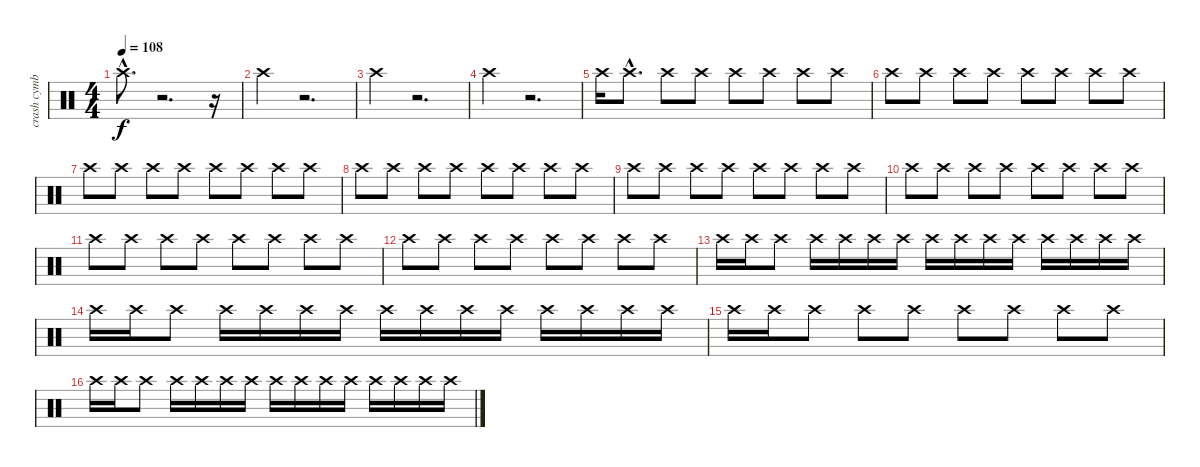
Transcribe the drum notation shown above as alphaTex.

\track ("crash cymbal        " "crash cymb") {instrument percussion}
\staff {score}
\articulation defaults
\ts (4 4)
\tempo 108
\clef neutral
\ks c "Crash high (hit)"{hac}.8{d dy f}
r.2{d} r.16 |
"Crash high (hit)".4 r.2{d} |
"Crash high (hit)".4 r.2{d} |
"Crash high (hit)".4 r.2{d} |
"Crash high (hit)".16 "Crash high (hit)"{hac}.8{d} "Crash high (hit)".8 "Crash high (hit)".8 "Crash high (hit)".8 "Crash high (hit)".8 "Crash high (hit)".8 "Crash high (hit)".8 |
"Crash high (hit)".8 "Crash high (hit)".8 "Crash high (hit)".8 "Crash high (hit)".8 "Crash high (hit)".8 "Crash high (hit)".8 "Crash high (hit)".8 "Crash high (hit)".8 |
"Crash high (hit)".8 "Crash high (hit)".8 "Crash high (hit)".8 "Crash high (hit)".8 "Crash high (hit)".8 "Crash high (hit)".8 "Crash high (hit)".8 "Crash high (hit)".8 |
"Crash high (hit)".8 "Crash high (hit)".8 "Crash high (hit)".8 "Crash high (hit)".8 "Crash high (hit)".8 "Crash high (hit)".8 "Crash high (hit)".8 "Crash high (hit)".8 |
"Crash high (hit)".8 "Crash high (hit)".8 "Crash high (hit)".8 "Crash high (hit)".8 "Crash high (hit)".8 "Crash high (hit)".8 "Crash high (hit)".8 "Crash high (hit)".8 |
"Crash high (hit)".8 "Crash high (hit)".8 "Crash high (hit)".8 "Crash high (hit)".8 "Crash high (hit)".8 "Crash high (hit)".8 "Crash high (hit)".8 "Crash high (hit)".8 |
"Crash high (hit)".8 "Crash high (hit)".8 "Crash high (hit)".8 "Crash high (hit)".8 "Crash high (hit)".8 "Crash high (hit)".8 "Crash high (hit)".8 "Crash high (hit)".8 |
"Crash high (hit)".8 "Crash high (hit)".8 "Crash high (hit)".8 "Crash high (hit)".8 "Crash high (hit)".8 "Crash high (hit)".8 "Crash high (hit)".8 "Crash high (hit)".8 |
"Crash high (hit)".16 "Crash high (hit)".16 "Crash high (hit)".8 "Crash high (hit)".16 "Crash high (hit)".16 "Crash high (hit)".16 "Crash high (hit)".16 "Crash high (hit)".16 "Crash high (hit)".16 "Crash high (hit)".16 "Crash high (hit)".16 "Crash high (hit)".16 "Crash high (hit)".16 "Crash high (hit)".16 "Crash high (hit)".16 |
"Crash high (hit)".16 "Crash high (hit)".16 "Crash high (hit)".8 "Crash high (hit)".16 "Crash high (hit)".16 "Crash high (hit)".16 "Crash high (hit)".16 "Crash high (hit)".16 "Crash high (hit)".16 "Crash high (hit)".16 "Crash high (hit)".16 "Crash high (hit)".16 "Crash high (hit)".16 "Crash high (hit)".16 "Crash high (hit)".16 |
"Crash high (hit)".16 "Crash high (hit)".16 "Crash high (hit)".8 "Crash high (hit)".8 "Crash high (hit)".8 "Crash high (hit)".8 "Crash high (hit)".8 "Crash high (hit)".8 "Crash high (hit)".8 |
"Crash high (hit)".16 "Crash high (hit)".16 "Crash high (hit)".8 "Crash high (hit)".16 "Crash high (hit)".16 "Crash high (hit)".16 "Crash high (hit)".16 "Crash high (hit)".16 "Crash high (hit)".16 "Crash high (hit)".16 "Crash high (hit)".16 "Crash high (hit)".16 "Crash high (hit)".16 "Crash high (hit)".16 "Crash high (hit)".16
